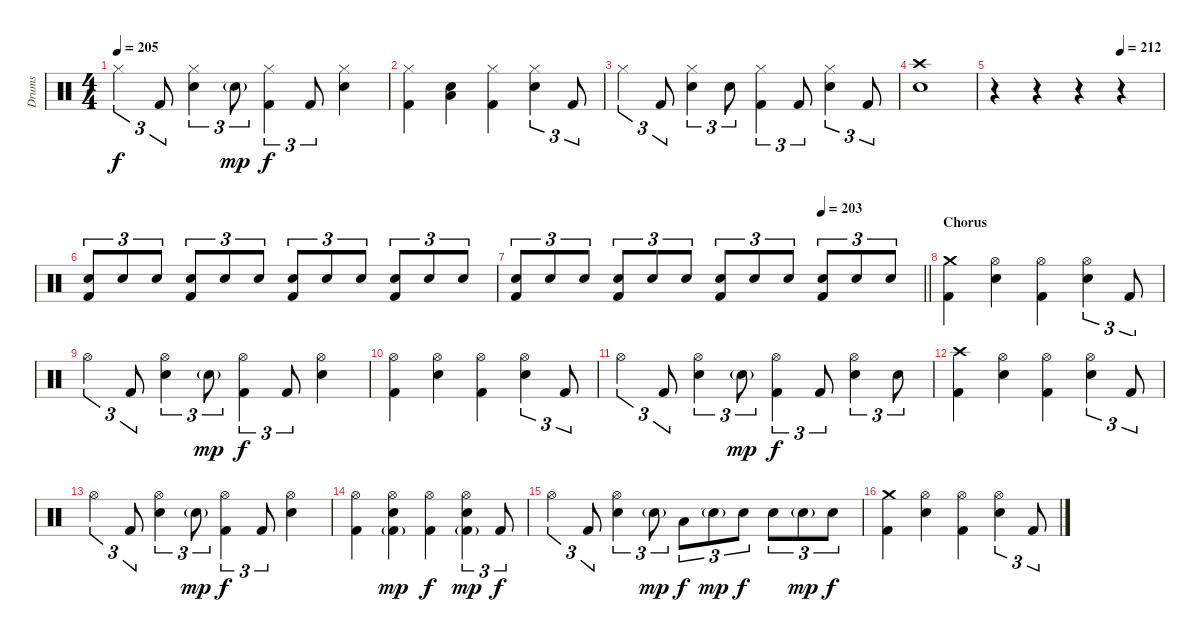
\track ("Drums" "Drums") {instrument percussion}
\staff {score}
\articulation defaults
\ts (4 4)
\tempo 205
\clef neutral
\ks c "Hi-Hat (closed)".4{tu (3 2) dy f} "Kick (hit) 2".8{tu (3 2)}
("Hi-Hat (closed)" "Electric Snare (hit)").4{tu (3 2)} "Electric Snare (hit)"{g}.8{tu (3 2) dy mp} ("Hi-Hat (closed)" "Kick (hit) 2").4{tu (3 2) dy f} "Kick (hit) 2".8{tu (3 2)} ("Hi-Hat (closed)" "Electric Snare (hit)").4 |
("Hi-Hat (closed)" "Kick (hit) 2").4 ("Low Floor Tom (hit)" "Electric Snare (hit)").4 ("Hi-Hat (closed)" "Kick (hit) 2").4 ("Hi-Hat (closed)" "Electric Snare (hit)").4{tu (3 2)} "Kick (hit) 2".8{tu (3 2)} |
"Hi-Hat (closed)".4{tu (3 2)} "Kick (hit) 2".8{tu (3 2)} ("Hi-Hat (closed)" "Electric Snare (hit)").4{tu (3 2)} "Electric Snare (hit)".8{tu (3 2)} ("Hi-Hat (closed)" "Kick (hit) 2").4{tu (3 2)} "Kick (hit) 2".8{tu (3 2)} ("Hi-Hat (closed)" "Electric Snare (hit)").4{tu (3 2)} "Kick (hit) 2".8{tu (3 2)} |
("Crash high (hit)" "Electric Snare (hit)").1 |
\tempo (212 0.75)
r.4 r.4 r.4 r.4 |
("Electric Snare (hit)" "Kick (hit) 2").8{tu (3 2)} "Electric Snare (hit)".8{tu (3 2)} "Electric Snare (hit)".8{tu (3 2)} ("Electric Snare (hit)" "Kick (hit) 2").8{tu (3 2)} "Electric Snare (hit)".8{tu (3 2)} "Electric Snare (hit)".8{tu (3 2)} ("Electric Snare (hit)" "Kick (hit) 2").8{tu (3 2)} "Electric Snare (hit)".8{tu (3 2)} "Electric Snare (hit)".8{tu (3 2)} ("Electric Snare (hit)" "Kick (hit) 2").8{tu (3 2)} "Electric Snare (hit)".8{tu (3 2)} "Electric Snare (hit)".8{tu (3 2)} |
\tempo (203 0.75)
\barLineRight lightlight
("Electric Snare (hit)" "Kick (hit) 2").8{tu (3 2)} "Electric Snare (hit)".8{tu (3 2)} "Electric Snare (hit)".8{tu (3 2)} ("Electric Snare (hit)" "Kick (hit) 2").8{tu (3 2)} "Electric Snare (hit)".8{tu (3 2)} "Electric Snare (hit)".8{tu (3 2)} ("Electric Snare (hit)" "Kick (hit) 2").8{tu (3 2)} "Electric Snare (hit)".8{tu (3 2)} "Electric Snare (hit)".8{tu (3 2)} ("Electric Snare (hit)" "Kick (hit) 2").8{tu (3 2)} "Electric Snare (hit)".8{tu (3 2)} "Electric Snare (hit)".8{tu (3 2)} |
\section ("" "Chorus")
("Crash medium (hit)" "Kick (hit) 2").4 ("Hi-Hat (open)" "Electric Snare (hit)").4 ("Hi-Hat (open)" "Kick (hit) 2").4 ("Hi-Hat (open)" "Electric Snare (hit)").4{tu (3 2)} "Kick (hit) 2".8{tu (3 2)} |
"Hi-Hat (open)".4{tu (3 2)} "Kick (hit) 2".8{tu (3 2)} ("Hi-Hat (open)" "Electric Snare (hit)").4{tu (3 2)} "Electric Snare (hit)"{g}.8{tu (3 2) dy mp} ("Hi-Hat (open)" "Kick (hit) 2").4{tu (3 2) dy f} "Kick (hit) 2".8{tu (3 2)} ("Hi-Hat (open)" "Electric Snare (hit)").4 |
("Hi-Hat (open)" "Kick (hit) 2").4 ("Hi-Hat (open)" "Electric Snare (hit)").4 ("Hi-Hat (open)" "Kick (hit) 2").4 ("Hi-Hat (open)" "Electric Snare (hit)").4{tu (3 2)} "Kick (hit) 2".8{tu (3 2)} |
"Hi-Hat (open)".4{tu (3 2)} "Kick (hit) 2".8{tu (3 2)} ("Hi-Hat (open)" "Electric Snare (hit)").4{tu (3 2)} "Electric Snare (hit)"{g}.8{tu (3 2) dy mp} ("Hi-Hat (open)" "Kick (hit) 2").4{tu (3 2) dy f} "Kick (hit) 2".8{tu (3 2)} ("Hi-Hat (open)" "Electric Snare (hit)").4{tu (3 2)} "Electric Snare (hit)".8{tu (3 2)} |
("Crash high (hit)" "Kick (hit) 2").4 ("Hi-Hat (open)" "Electric Snare (hit)").4 ("Hi-Hat (open)" "Kick (hit) 2").4 ("Hi-Hat (open)" "Electric Snare (hit)").4{tu (3 2)} "Kick (hit) 2".8{tu (3 2)} |
"Hi-Hat (open)".4{tu (3 2)} "Kick (hit) 2".8{tu (3 2)} ("Hi-Hat (open)" "Electric Snare (hit)").4{tu (3 2)} "Electric Snare (hit)"{g}.8{tu (3 2) dy mp} ("Hi-Hat (open)" "Kick (hit) 2").4{tu (3 2) dy f} "Kick (hit) 2".8{tu (3 2)} ("Hi-Hat (open)" "Electric Snare (hit)").4 |
("Hi-Hat (open)" "Kick (hit) 2").4 ("Hi-Hat (open)" "Electric Snare (hit)" "Kick (hit) 2"{g}).4{dy mp} ("Hi-Hat (open)" "Kick (hit) 2").4{dy f} ("Hi-Hat (open)" "Electric Snare (hit)" "Kick (hit) 2"{g}).4{tu (3 2) dy mp} "Kick (hit) 2".8{tu (3 2) dy f} |
"Hi-Hat (open)".4{tu (3 2)} "Kick (hit) 2".8{tu (3 2)} ("Hi-Hat (open)" "Electric Snare (hit)").4{tu (3 2)} "Electric Snare (hit)"{g}.8{tu (3 2) dy mp} "Low Tom (hit)".8{tu (3 2) dy f} "Electric Snare (hit)"{g}.8{tu (3 2) dy mp} "Electric Snare (hit)".8{tu (3 2) dy f} "Electric Snare (hit)".8{tu (3 2)} "Electric Snare (hit)"{g}.8{tu (3 2) dy mp} "Electric Snare (hit)".8{tu (3 2) dy f} |
("Crash medium (hit)" "Kick (hit) 2").4 ("Hi-Hat (open)" "Electric Snare (hit)").4 ("Hi-Hat (open)" "Kick (hit) 2").4 ("Hi-Hat (open)" "Electric Snare (hit)").4{tu (3 2)} "Kick (hit) 2".8{tu (3 2)}
